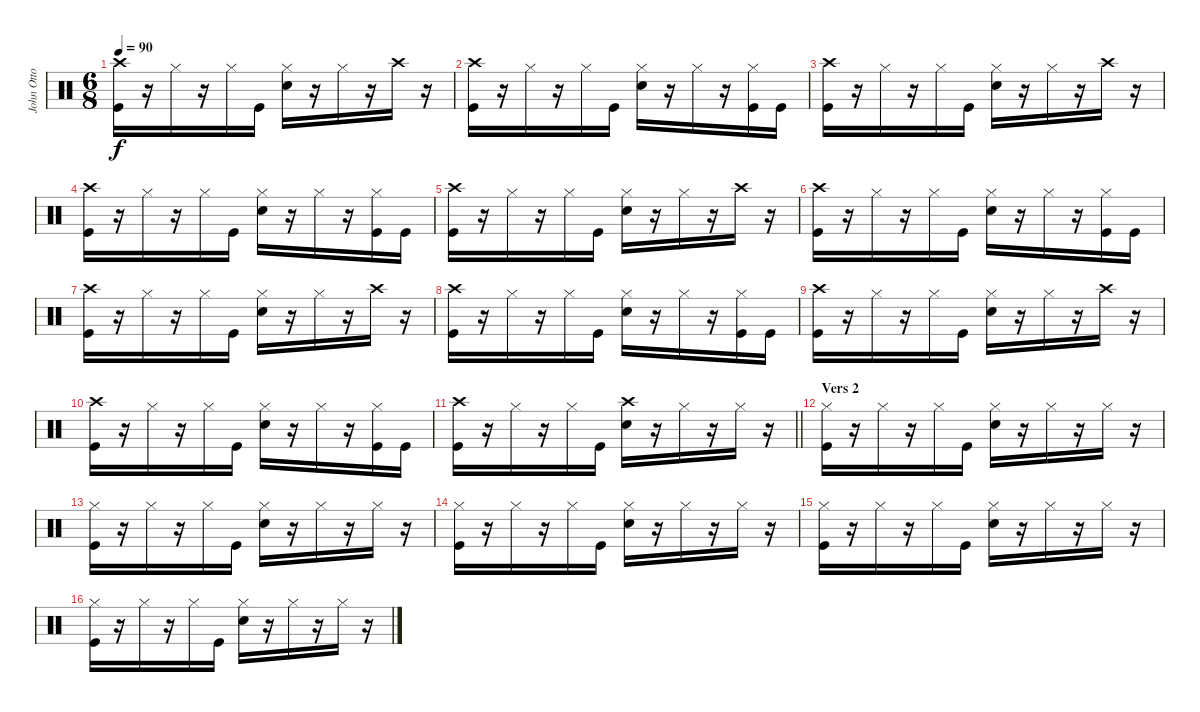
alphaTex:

\track ("John Otto" "John Otto") {instrument percussion}
\staff {score}
\articulation defaults
\ts (6 8)
\tempo 90
\clef neutral
\ks c
("Crash high (hit)" "Kick (hit)").16{dy f} r.16 "Hi-Hat (closed)".16 r.16 "Hi-Hat (closed)".16 "Kick (hit)".16 ("Hi-Hat (closed)" "Electric Snare (hit)").16 r.16 "Hi-Hat (closed)".16 r.16 "Crash high (hit)".16 r.16 |
("Crash high (hit)" "Kick (hit)").16 r.16 "Hi-Hat (closed)".16 r.16 "Hi-Hat (closed)".16 "Kick (hit)".16 ("Hi-Hat (closed)" "Electric Snare (hit)").16 r.16 "Hi-Hat (closed)".16 r.16 ("Hi-Hat (closed)" "Kick (hit)").16 "Kick (hit)".16 |
("Crash high (hit)" "Kick (hit)").16 r.16 "Hi-Hat (closed)".16 r.16 "Hi-Hat (closed)".16 "Kick (hit)".16 ("Hi-Hat (closed)" "Electric Snare (hit)").16 r.16 "Hi-Hat (closed)".16 r.16 "Crash high (hit)".16 r.16 |
("Crash high (hit)" "Kick (hit)").16 r.16 "Hi-Hat (closed)".16 r.16 "Hi-Hat (closed)".16 "Kick (hit)".16 ("Hi-Hat (closed)" "Electric Snare (hit)").16 r.16 "Hi-Hat (closed)".16 r.16 ("Hi-Hat (closed)" "Kick (hit)").16 "Kick (hit)".16 |
("Crash high (hit)" "Kick (hit)").16 r.16 "Hi-Hat (closed)".16 r.16 "Hi-Hat (closed)".16 "Kick (hit)".16 ("Hi-Hat (closed)" "Electric Snare (hit)").16 r.16 "Hi-Hat (closed)".16 r.16 "Crash high (hit)".16 r.16 |
("Crash high (hit)" "Kick (hit)").16 r.16 "Hi-Hat (closed)".16 r.16 "Hi-Hat (closed)".16 "Kick (hit)".16 ("Hi-Hat (closed)" "Electric Snare (hit)").16 r.16 "Hi-Hat (closed)".16 r.16 ("Hi-Hat (closed)" "Kick (hit)").16 "Kick (hit)".16 |
("Crash high (hit)" "Kick (hit)").16 r.16 "Hi-Hat (closed)".16 r.16 "Hi-Hat (closed)".16 "Kick (hit)".16 ("Hi-Hat (closed)" "Electric Snare (hit)").16 r.16 "Hi-Hat (closed)".16 r.16 "Crash high (hit)".16 r.16 |
("Crash high (hit)" "Kick (hit)").16 r.16 "Hi-Hat (closed)".16 r.16 "Hi-Hat (closed)".16 "Kick (hit)".16 ("Hi-Hat (closed)" "Electric Snare (hit)").16 r.16 "Hi-Hat (closed)".16 r.16 ("Hi-Hat (closed)" "Kick (hit)").16 "Kick (hit)".16 |
("Crash high (hit)" "Kick (hit)").16 r.16 "Hi-Hat (closed)".16 r.16 "Hi-Hat (closed)".16 "Kick (hit)".16 ("Hi-Hat (closed)" "Electric Snare (hit)").16 r.16 "Hi-Hat (closed)".16 r.16 "Crash high (hit)".16 r.16 |
("Crash high (hit)" "Kick (hit)").16 r.16 "Hi-Hat (closed)".16 r.16 "Hi-Hat (closed)".16 "Kick (hit)".16 ("Hi-Hat (closed)" "Electric Snare (hit)").16 r.16 "Hi-Hat (closed)".16 r.16 ("Hi-Hat (closed)" "Kick (hit)").16 "Kick (hit)".16 |
\barLineRight lightlight
("Crash high (hit)" "Kick (hit)").16 r.16 "Hi-Hat (closed)".16 r.16 "Hi-Hat (closed)".16 "Kick (hit)".16 ("Crash high (hit)" "Electric Snare (hit)").16 r.16 "Hi-Hat (closed)".16 r.16 "Hi-Hat (closed)".16 r.16 |
\section ("" "Vers 2")
("Hi-Hat (closed)" "Kick (hit)").16 r.16 "Hi-Hat (closed)".16 r.16 "Hi-Hat (closed)".16 "Kick (hit)".16 ("Hi-Hat (closed)" "Electric Snare (hit)").16 r.16 "Hi-Hat (closed)".16 r.16 "Hi-Hat (closed)".16 r.16 |
("Hi-Hat (closed)" "Kick (hit)").16 r.16 "Hi-Hat (closed)".16 r.16 "Hi-Hat (closed)".16 "Kick (hit)".16 ("Hi-Hat (closed)" "Electric Snare (hit)").16 r.16 "Hi-Hat (closed)".16 r.16 "Hi-Hat (closed)".16 r.16 |
("Hi-Hat (closed)" "Kick (hit)").16 r.16 "Hi-Hat (closed)".16 r.16 "Hi-Hat (closed)".16 "Kick (hit)".16 ("Hi-Hat (closed)" "Electric Snare (hit)").16 r.16 "Hi-Hat (closed)".16 r.16 "Hi-Hat (closed)".16 r.16 |
("Hi-Hat (closed)" "Kick (hit)").16 r.16 "Hi-Hat (closed)".16 r.16 "Hi-Hat (closed)".16 "Kick (hit)".16 ("Hi-Hat (closed)" "Electric Snare (hit)").16 r.16 "Hi-Hat (closed)".16 r.16 "Hi-Hat (closed)".16 r.16 |
("Hi-Hat (closed)" "Kick (hit)").16 r.16 "Hi-Hat (closed)".16 r.16 "Hi-Hat (closed)".16 "Kick (hit)".16 ("Hi-Hat (closed)" "Electric Snare (hit)").16 r.16 "Hi-Hat (closed)".16 r.16 "Hi-Hat (closed)".16 r.16
